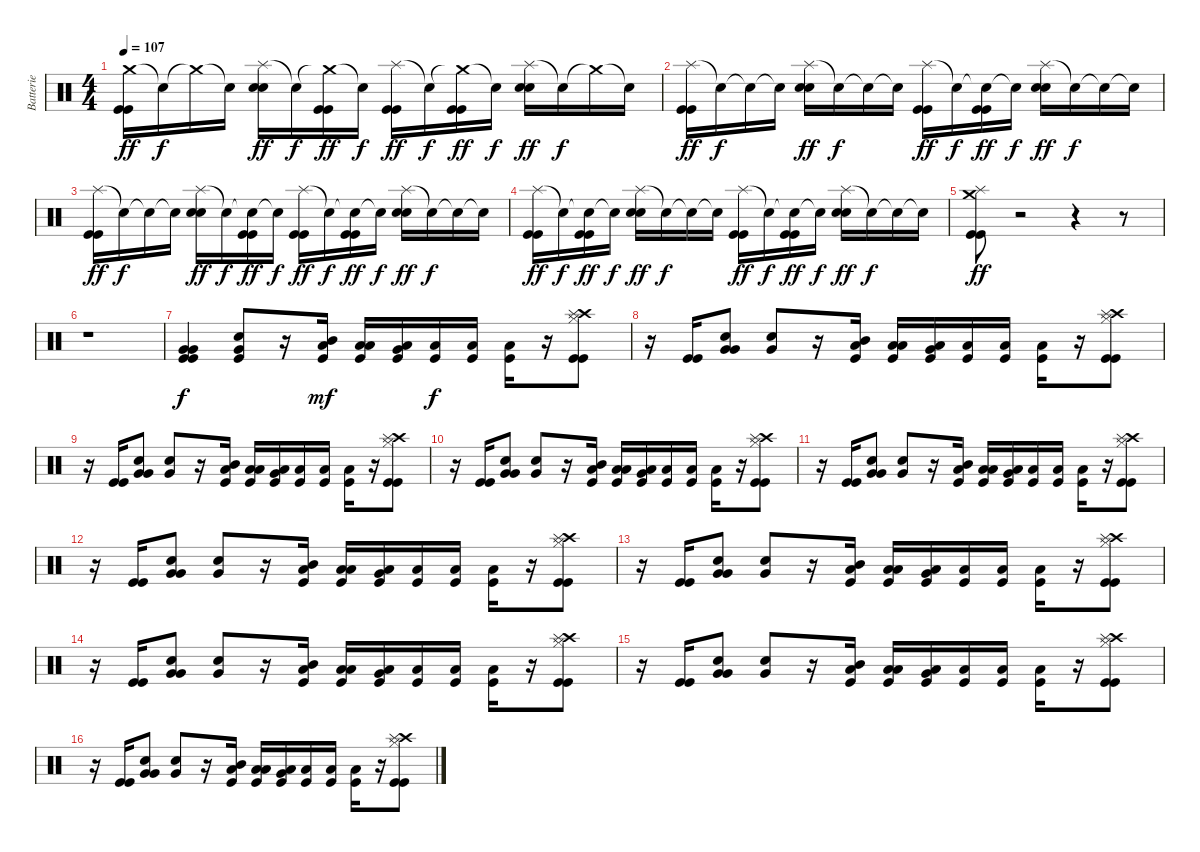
\track ("Batterie" "Batterie") {instrument percussion}
\staff {score}
\articulation defaults
\ts (4 4)
\tempo 107
\clef neutral
\ks c
("Crash medium (hit)" "Kick (hit)" "Kick (hit)").16{dy ff} "Snare (hit)"{t}.16{dy f} "Crash medium (hit)"{t}.16 "Snare (hit)"{t}.16 ("Splash (hit)" "Snare (hit) 2" "Snare (hit) 2").16{dy ff} "Snare (hit)"{t}.16{dy f} ("Crash medium (hit)"{t} "Kick (hit)" "Kick (hit)").16{dy ff} "Snare (hit)"{t}.16{dy f} ("Splash (hit)" "Kick (hit)" "Kick (hit)").16{dy ff} "Snare (hit)"{t}.16{dy f} ("Crash medium (hit)"{t} "Kick (hit)" "Kick (hit)").16{dy ff} "Snare (hit)"{t}.16{dy f} ("Splash (hit)" "Snare (hit) 2" "Snare (hit) 2").16{dy ff} "Snare (hit)"{t}.16{dy f} "Crash medium (hit)"{t}.16 "Snare (hit)"{t}.16 |
("Splash (hit)" "Kick (hit)" "Kick (hit)").16{dy ff} "Snare (hit)"{t}.16{dy f} "Snare (hit)"{t}.16 "Snare (hit)"{t}.16 ("Splash (hit)" "Snare (hit) 2" "Snare (hit) 2").16{dy ff} "Snare (hit)"{t}.16{dy f} "Snare (hit)"{t}.16 "Snare (hit)"{t}.16 ("Splash (hit)" "Kick (hit)" "Kick (hit)").16{dy ff} "Snare (hit)"{t}.16{dy f} ("Snare (hit)"{t} "Kick (hit)" "Kick (hit)").16{dy ff} "Snare (hit)"{t}.16{dy f} ("Splash (hit)" "Snare (hit) 2" "Snare (hit) 2").16{dy ff} "Snare (hit)"{t}.16{dy f} "Snare (hit)"{t}.16 "Snare (hit)"{t}.16 |
("Splash (hit)" "Kick (hit)" "Kick (hit)").16{dy ff} "Snare (hit)"{t}.16{dy f} "Snare (hit)"{t}.16 "Snare (hit)"{t}.16 ("Splash (hit)" "Snare (hit) 2" "Snare (hit) 2").16{dy ff} "Snare (hit)"{t}.16{dy f} ("Snare (hit)"{t} "Kick (hit)" "Kick (hit)").16{dy ff} "Snare (hit)"{t}.16{dy f} ("Splash (hit)" "Kick (hit)" "Kick (hit)").16{dy ff} "Snare (hit)"{t}.16{dy f} ("Snare (hit)"{t} "Kick (hit)" "Kick (hit)").16{dy ff} "Snare (hit)"{t}.16{dy f} ("Splash (hit)" "Snare (hit) 2" "Snare (hit) 2").16{dy ff} "Snare (hit)"{t}.16{dy f} "Snare (hit)"{t}.16 "Snare (hit)"{t}.16 |
("Splash (hit)" "Kick (hit)" "Kick (hit)").16{dy ff} "Snare (hit)"{t}.16{dy f} ("Snare (hit)"{t} "Kick (hit)" "Kick (hit)").16{dy ff} "Snare (hit)"{t}.16{dy f} ("Splash (hit)" "Snare (hit) 2" "Snare (hit) 2").16{dy ff} "Snare (hit)"{t}.16{dy f} "Snare (hit)"{t}.16 "Snare (hit)"{t}.16 ("Splash (hit)" "Kick (hit)" "Kick (hit)").16{dy ff} "Snare (hit)"{t}.16{dy f} ("Snare (hit)"{t} "Kick (hit)" "Kick (hit)").16{dy ff} "Snare (hit)"{t}.16{dy f} ("Splash (hit)" "Snare (hit) 2" "Snare (hit) 2").16{dy ff} "Snare (hit)"{t}.16{dy f} "Snare (hit)"{t}.16 "Snare (hit)"{t}.16 |
("Crash medium (hit)" "Splash (hit)" "Kick (hit)" "Kick (hit)").8{dy ff volume 0} r.2 r.4 r.8 |
r.1 |
("Very Low Tom (hit)" "Very Low Tom (hit)" "Kick (hit)" "Kick (hit)").4{dy f volume 16} ("Snare (hit) 2" "Very Low Tom (hit)" "Kick (hit)").8 r.16 ("Mid Tom (hit)" "Low Floor Tom (hit)" "Kick (hit)").16{dy mf} ("Low Tom (hit)" "Low Floor Tom (hit)" "Kick (hit)").16 ("Very Low Tom (hit)" "Low Floor Tom (hit)" "Kick (hit)").16 ("Low Floor Tom (hit)" "Kick (hit)").16{dy f} ("Low Floor Tom (hit)" "Kick (hit)").16 ("Low Floor Tom (hit)" "Kick (hit)").16 r.16 ("Crash high (hit)" "Splash (hit)" "Hi-Hat (closed)" "Kick (hit)" "Kick (hit)").8 |
r.16 ("Kick (hit)" "Kick (hit)").16 ("Snare (hit) 2" "Very Low Tom (hit)" "Very Low Tom (hit)").8 ("Snare (hit) 2" "Very Low Tom (hit)").8 r.16 ("Mid Tom (hit)" "Low Floor Tom (hit)" "Kick (hit)").16 ("Low Tom (hit)" "Low Floor Tom (hit)" "Kick (hit)").16 ("Very Low Tom (hit)" "Low Floor Tom (hit)" "Kick (hit)").16 ("Low Floor Tom (hit)" "Kick (hit)").16 ("Low Floor Tom (hit)" "Kick (hit)").16 ("Low Floor Tom (hit)" "Kick (hit)").16 r.16 ("Crash high (hit)" "Splash (hit)" "Hi-Hat (closed)" "Kick (hit)" "Kick (hit)").8 |
r.16 ("Kick (hit)" "Kick (hit)").16 ("Snare (hit) 2" "Very Low Tom (hit)" "Very Low Tom (hit)").8 ("Snare (hit) 2" "Very Low Tom (hit)").8 r.16 ("Mid Tom (hit)" "Low Floor Tom (hit)" "Kick (hit)").16 ("Low Tom (hit)" "Low Floor Tom (hit)" "Kick (hit)").16 ("Very Low Tom (hit)" "Low Floor Tom (hit)" "Kick (hit)").16 ("Low Floor Tom (hit)" "Kick (hit)").16 ("Low Floor Tom (hit)" "Kick (hit)").16 ("Low Floor Tom (hit)" "Kick (hit)").16 r.16 ("Crash high (hit)" "Splash (hit)" "Hi-Hat (closed)" "Kick (hit)" "Kick (hit)").8 |
r.16 ("Kick (hit)" "Kick (hit)").16 ("Snare (hit) 2" "Very Low Tom (hit)" "Very Low Tom (hit)").8 ("Snare (hit) 2" "Very Low Tom (hit)").8 r.16 ("Mid Tom (hit)" "Low Floor Tom (hit)" "Kick (hit)").16 ("Low Tom (hit)" "Low Floor Tom (hit)" "Kick (hit)").16 ("Very Low Tom (hit)" "Low Floor Tom (hit)" "Kick (hit)").16 ("Low Floor Tom (hit)" "Kick (hit)").16 ("Low Floor Tom (hit)" "Kick (hit)").16 ("Low Floor Tom (hit)" "Kick (hit)").16 r.16 ("Crash high (hit)" "Splash (hit)" "Hi-Hat (closed)" "Kick (hit)" "Kick (hit)").8 |
r.16 ("Kick (hit)" "Kick (hit)").16 ("Snare (hit) 2" "Very Low Tom (hit)" "Very Low Tom (hit)").8 ("Snare (hit) 2" "Very Low Tom (hit)").8 r.16 ("Mid Tom (hit)" "Low Floor Tom (hit)" "Kick (hit)").16 ("Low Tom (hit)" "Low Floor Tom (hit)" "Kick (hit)").16 ("Very Low Tom (hit)" "Low Floor Tom (hit)" "Kick (hit)").16 ("Low Floor Tom (hit)" "Kick (hit)").16 ("Low Floor Tom (hit)" "Kick (hit)").16 ("Low Floor Tom (hit)" "Kick (hit)").16 r.16 ("Crash high (hit)" "Splash (hit)" "Hi-Hat (closed)" "Kick (hit)" "Kick (hit)").8 |
r.16 ("Kick (hit)" "Kick (hit)").16 ("Snare (hit) 2" "Very Low Tom (hit)" "Very Low Tom (hit)").8 ("Snare (hit) 2" "Very Low Tom (hit)").8 r.16 ("Mid Tom (hit)" "Low Floor Tom (hit)" "Kick (hit)").16 ("Low Tom (hit)" "Low Floor Tom (hit)" "Kick (hit)").16 ("Very Low Tom (hit)" "Low Floor Tom (hit)" "Kick (hit)").16 ("Low Floor Tom (hit)" "Kick (hit)").16 ("Low Floor Tom (hit)" "Kick (hit)").16 ("Low Floor Tom (hit)" "Kick (hit)").16 r.16 ("Crash high (hit)" "Splash (hit)" "Hi-Hat (closed)" "Kick (hit)" "Kick (hit)").8 |
r.16 ("Kick (hit)" "Kick (hit)").16 ("Snare (hit) 2" "Very Low Tom (hit)" "Very Low Tom (hit)").8 ("Snare (hit) 2" "Very Low Tom (hit)").8 r.16 ("Mid Tom (hit)" "Low Floor Tom (hit)" "Kick (hit)").16 ("Low Tom (hit)" "Low Floor Tom (hit)" "Kick (hit)").16 ("Very Low Tom (hit)" "Low Floor Tom (hit)" "Kick (hit)").16 ("Low Floor Tom (hit)" "Kick (hit)").16 ("Low Floor Tom (hit)" "Kick (hit)").16 ("Low Floor Tom (hit)" "Kick (hit)").16 r.16 ("Crash high (hit)" "Splash (hit)" "Hi-Hat (closed)" "Kick (hit)" "Kick (hit)").8 |
r.16 ("Kick (hit)" "Kick (hit)").16 ("Snare (hit) 2" "Very Low Tom (hit)" "Very Low Tom (hit)").8 ("Snare (hit) 2" "Very Low Tom (hit)").8 r.16 ("Mid Tom (hit)" "Low Floor Tom (hit)" "Kick (hit)").16 ("Low Tom (hit)" "Low Floor Tom (hit)" "Kick (hit)").16 ("Very Low Tom (hit)" "Low Floor Tom (hit)" "Kick (hit)").16 ("Low Floor Tom (hit)" "Kick (hit)").16 ("Low Floor Tom (hit)" "Kick (hit)").16 ("Low Floor Tom (hit)" "Kick (hit)").16 r.16 ("Crash high (hit)" "Splash (hit)" "Hi-Hat (closed)" "Kick (hit)" "Kick (hit)").8 |
r.16 ("Kick (hit)" "Kick (hit)").16 ("Snare (hit) 2" "Very Low Tom (hit)" "Very Low Tom (hit)").8 ("Snare (hit) 2" "Very Low Tom (hit)").8 r.16 ("Mid Tom (hit)" "Low Floor Tom (hit)" "Kick (hit)").16 ("Low Tom (hit)" "Low Floor Tom (hit)" "Kick (hit)").16 ("Very Low Tom (hit)" "Low Floor Tom (hit)" "Kick (hit)").16 ("Low Floor Tom (hit)" "Kick (hit)").16 ("Low Floor Tom (hit)" "Kick (hit)").16 ("Low Floor Tom (hit)" "Kick (hit)").16 r.16 ("Crash high (hit)" "Splash (hit)" "Hi-Hat (closed)" "Kick (hit)" "Kick (hit)").8 |
r.16 ("Kick (hit)" "Kick (hit)").16 ("Snare (hit) 2" "Very Low Tom (hit)" "Very Low Tom (hit)").8 ("Snare (hit) 2" "Very Low Tom (hit)").8 r.16 ("Mid Tom (hit)" "Low Floor Tom (hit)" "Kick (hit)").16 ("Low Tom (hit)" "Low Floor Tom (hit)" "Kick (hit)").16 ("Very Low Tom (hit)" "Low Floor Tom (hit)" "Kick (hit)").16 ("Low Floor Tom (hit)" "Kick (hit)").16 ("Low Floor Tom (hit)" "Kick (hit)").16 ("Low Floor Tom (hit)" "Kick (hit)").16 r.16 ("Crash high (hit)" "Splash (hit)" "Hi-Hat (closed)" "Kick (hit)" "Kick (hit)").8
